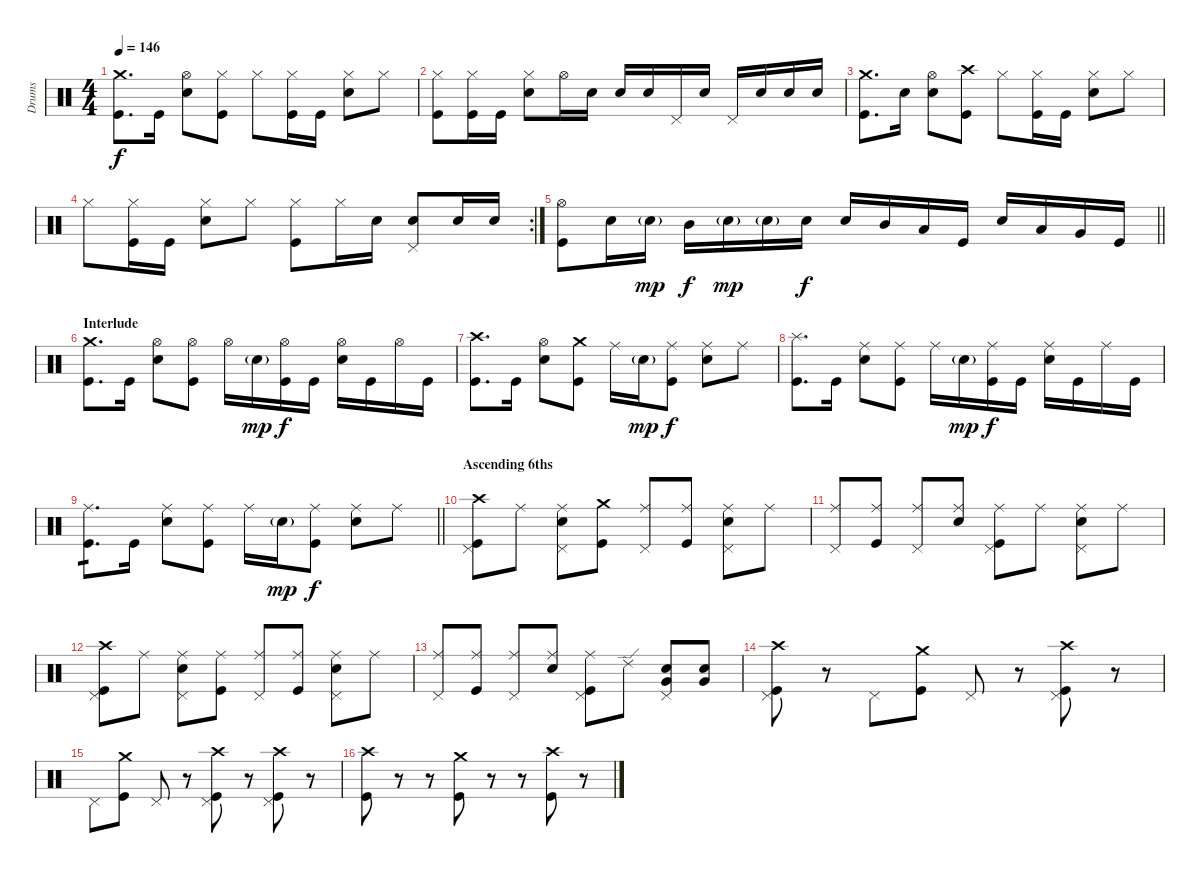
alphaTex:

\track ("Drums" "Drums") {instrument percussion}
\staff {score}
\articulation defaults
\ts (4 4)
\tempo 146
\clef neutral
\ks c
("Crash medium (hit)" "Kick (hit)").8{d dy f} "Kick (hit)".16 ("Hi-Hat (open)" "Electric Snare (hit)").8 ("Hi-Hat (closed)" "Kick (hit)").8 "Hi-Hat (closed)".8 ("Hi-Hat (closed)" "Kick (hit)").16 "Kick (hit)".16 ("Hi-Hat (closed)" "Electric Snare (hit)").8 "Hi-Hat (closed)".8 |
("Hi-Hat (closed)" "Kick (hit)").8 ("Hi-Hat (closed)" "Kick (hit)").16 "Kick (hit)".16 ("Hi-Hat (closed)" "Electric Snare (hit)").8 "Hi-Hat (open)".16 "Electric Snare (hit)".16 "Electric Snare (hit)".16 "Electric Snare (hit)".16 "Pedal Hi-Hat (hit)".16 "Electric Snare (hit)".16 "Pedal Hi-Hat (hit)".16 "Electric Snare (hit)".16 "Electric Snare (hit)".16 "Electric Snare (hit)".16 |
("Crash medium (hit)" "Kick (hit)").8{d} "Electric Snare (hit)".16 ("Hi-Hat (open)" "Electric Snare (hit)").8 ("Crash high (hit)" "Kick (hit)").8 "Hi-Hat (closed)".8 ("Hi-Hat (closed)" "Kick (hit)").16 "Kick (hit)".16 ("Hi-Hat (closed)" "Electric Snare (hit)").8 "Hi-Hat (closed)".8 |
\rc 2 "Hi-Hat (closed)".8
("Hi-Hat (closed)" "Kick (hit)").16 "Kick (hit)".16 ("Hi-Hat (closed)" "Electric Snare (hit)").8 "Hi-Hat (closed)".8 ("Hi-Hat (closed)" "Kick (hit)").8 "Hi-Hat (closed)".16 "Electric Snare (hit)".16 ("Pedal Hi-Hat (hit)" "Electric Snare (hit)").8 "Electric Snare (hit)".16 "Electric Snare (hit)".16 |
\barLineRight lightlight
("Hi-Hat (open)" "Kick (hit)").8 "Electric Snare (hit)".16 "Electric Snare (hit)"{g}.16{dy mp} "Mid Tom (hit)".16{dy f} "Electric Snare (hit)"{g}.16{dy mp} "Electric Snare (hit)"{g}.16 "Electric Snare (hit)".16{dy f} "Electric Snare (hit)".16 "Mid Tom (hit)".16 "Low Tom (hit)".16 "Kick (hit)".16 "Electric Snare (hit)".16 "Low Tom (hit)".16 "Very Low Tom (hit)".16 "Kick (hit)".16 |
\section ("" "Interlude")
("Crash medium (hit)" "Kick (hit)").8{d} "Kick (hit)".16 ("Hi-Hat (open)" "Electric Snare (hit)").8 ("Hi-Hat (open)" "Kick (hit)").8 "Hi-Hat (open)".16 "Electric Snare (hit)"{g}.16{dy mp} ("Hi-Hat (open)" "Kick (hit)").16{dy f} "Kick (hit)".16 ("Hi-Hat (open)" "Electric Snare (hit)").16 "Kick (hit)".16 "Hi-Hat (open)".16 "Kick (hit)".16 |
("Crash high (hit)" "Kick (hit)").8{d} "Kick (hit)".16 ("Hi-Hat (open)" "Electric Snare (hit)").8 ("Crash medium (hit)" "Kick (hit)").8 "Ride (middle)".16 "Electric Snare (hit)"{g}.16{dy mp} ("Ride (middle)" "Kick (hit)").8{dy f} ("Ride (middle)" "Electric Snare (hit)").8 "Ride (middle)".8 |
("Splash (hit)" "Kick (hit)").8{d} "Kick (hit)".16 ("Ride (middle)" "Electric Snare (hit)").8 ("Ride (middle)" "Kick (hit)").8 "Ride (middle)".16 "Electric Snare (hit)"{g}.16{dy mp} ("Ride (middle)" "Kick (hit)").16{dy f} "Kick (hit)".16 ("Ride (middle)" "Electric Snare (hit)").16 "Kick (hit)".16 "Ride (middle)".16 "Kick (hit)".16 |
\barLineRight lightlight
("Ride (middle)" "Kick (hit)").8{d tp 1} "Kick (hit)".16 ("Ride (middle)" "Electric Snare (hit)").8 ("Ride (middle)" "Kick (hit)").8 "Ride (middle)".16 "Electric Snare (hit)"{g}.16{dy mp} ("Ride (middle)" "Kick (hit)").8{dy f} ("Ride (middle)" "Electric Snare (hit)").8 "Ride (middle)".8 |
\section ("" "Ascending 6ths")
("Crash high (hit)" "Pedal Hi-Hat (hit)" "Kick (hit)").8 "Ride (middle)".8 ("Ride (middle)" "Pedal Hi-Hat (hit)" "Electric Snare (hit)").8 ("Crash medium (hit)" "Kick (hit)").8 ("Ride (middle)" "Pedal Hi-Hat (hit)").8 ("Ride (middle)" "Kick (hit)").8 ("Ride (middle)" "Pedal Hi-Hat (hit)" "Electric Snare (hit)").8 "Ride (middle)".8 |
("Ride (middle)" "Pedal Hi-Hat (hit)").8 ("Ride (middle)" "Kick (hit)").8 ("Ride (middle)" "Pedal Hi-Hat (hit)").8 ("Ride (middle)" "Electric Snare (hit)").8 ("Ride (middle)" "Pedal Hi-Hat (hit)" "Kick (hit)").8 "Ride (middle)".8 ("Ride (middle)" "Pedal Hi-Hat (hit)" "Electric Snare (hit)").8 "Ride (middle)".8 |
("Crash high (hit)" "Pedal Hi-Hat (hit)" "Kick (hit)").8 "Ride (middle)".8 ("Ride (middle)" "Pedal Hi-Hat (hit)" "Electric Snare (hit)").8 ("Ride (middle)" "Kick (hit)").8 ("Ride (middle)" "Pedal Hi-Hat (hit)").8 ("Ride (middle)" "Kick (hit)").8 ("Ride (middle)" "Pedal Hi-Hat (hit)" "Electric Snare (hit)").8 "Ride (middle)".8 |
("Ride (middle)" "Pedal Hi-Hat (hit)").8 ("Ride (middle)" "Kick (hit)").8 ("Ride (middle)" "Pedal Hi-Hat (hit)").8 ("Ride (middle)" "Electric Snare (hit)").8 ("Ride (middle)" "Pedal Hi-Hat (hit)" "Kick (hit)").8 "Ride (edge) 2".8 ("Electric Snare (hit)" "Very Low Tom (hit)" "Pedal Hi-Hat (hit)").8 ("Electric Snare (hit)" "Very Low Tom (hit)").8 |
("Crash high (hit)" "Pedal Hi-Hat (hit)" "Kick (hit)").8 r.8 "Pedal Hi-Hat (hit)".8 ("Crash medium (hit)" "Kick (hit)").8 "Pedal Hi-Hat (hit)".8 r.8 ("Crash high (hit)" "Pedal Hi-Hat (hit)" "Kick (hit)").8 r.8 |
"Pedal Hi-Hat (hit)".8 ("Crash medium (hit)" "Kick (hit)").8 "Pedal Hi-Hat (hit)".8 r.8 ("Crash high (hit)" "Pedal Hi-Hat (hit)" "Kick (hit)").8 r.8 ("Crash high (hit)" "Pedal Hi-Hat (hit)" "Kick (hit)").8 r.8 |
("Crash high (hit)" "Kick (hit)").8 r.8 r.8 ("Crash medium (hit)" "Kick (hit)").8 r.8 r.8 ("Crash high (hit)" "Kick (hit)").8 r.8
